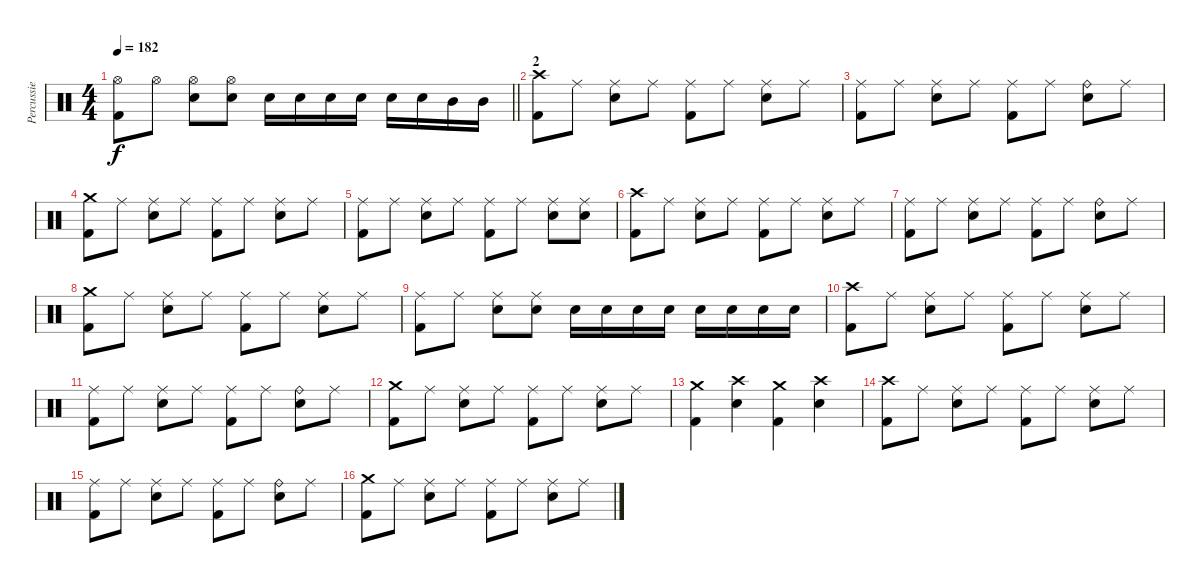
\track ("Percussie" "Percussie") {instrument percussion}
\staff {score}
\articulation defaults
\ts (4 4)
\tempo 182
\clef neutral
\barLineRight lightlight
\ks c
("Hi-Hat (open)" "Kick (hit) 2").8{dy f} "Hi-Hat (open)".8 ("Hi-Hat (open)" "Snare (hit) 2").8 ("Hi-Hat (open)" "Snare (hit) 2").8 "Snare (hit) 2".16 "Snare (hit) 2".16 "Snare (hit) 2".16 "Snare (hit) 2".16 "Snare (hit) 2".16 "Snare (hit) 2".16 "Mid Tom (hit)".16 "Mid Tom (hit)".16 |
\section ("" "2")
("Crash high (hit)" "Kick (hit) 2").8 "Ride (middle)".8 ("Ride (middle)" "Snare (hit) 2").8 "Ride (middle)".8 ("Ride (middle)" "Kick (hit) 2").8 "Ride (middle)".8 ("Ride (middle)" "Snare (hit) 2").8 "Ride (middle)".8 |
("Ride (middle)" "Kick (hit) 2").8 "Ride (middle)".8 ("Ride (middle)" "Snare (hit) 2").8 "Ride (middle)".8 ("Ride (middle)" "Kick (hit) 2").8 "Ride (middle)".8 ("Ride (bell)" "Snare (hit) 2").8 "Ride (middle)".8 |
("Crash medium (hit)" "Kick (hit) 2").8 "Ride (middle)".8 ("Ride (middle)" "Snare (hit) 2").8 "Ride (middle)".8 ("Ride (middle)" "Kick (hit) 2").8 "Ride (middle)".8 ("Ride (middle)" "Snare (hit) 2").8 "Ride (middle)".8 |
("Ride (middle)" "Kick (hit) 2").8 "Ride (middle)".8 ("Ride (middle)" "Snare (hit) 2").8 "Ride (middle)".8 ("Ride (middle)" "Kick (hit) 2").8 "Ride (middle)".8 ("Ride (middle)" "Snare (hit) 2").8 ("Ride (middle)" "Snare (hit) 2").8 |
("Crash high (hit)" "Kick (hit) 2").8 "Ride (middle)".8 ("Ride (middle)" "Snare (hit) 2").8 "Ride (middle)".8 ("Ride (middle)" "Kick (hit) 2").8 "Ride (middle)".8 ("Ride (middle)" "Snare (hit) 2").8 "Ride (middle)".8 |
("Ride (middle)" "Kick (hit) 2").8 "Ride (middle)".8 ("Ride (middle)" "Snare (hit) 2").8 "Ride (middle)".8 ("Ride (middle)" "Kick (hit) 2").8 "Ride (middle)".8 ("Ride (bell)" "Snare (hit) 2").8 "Ride (middle)".8 |
("Crash medium (hit)" "Kick (hit) 2").8 "Ride (middle)".8 ("Ride (middle)" "Snare (hit) 2").8 "Ride (middle)".8 ("Ride (middle)" "Kick (hit) 2").8 "Ride (middle)".8 ("Ride (middle)" "Snare (hit) 2").8 "Ride (middle)".8 |
("Ride (middle)" "Kick (hit) 2").8 "Ride (middle)".8 ("Ride (middle)" "Snare (hit) 2").8 ("Ride (middle)" "Snare (hit) 2").8 "Snare (hit) 2".16 "Snare (hit) 2".16 "Snare (hit) 2".16 "Snare (hit) 2".16 "Snare (hit) 2".16 "Snare (hit) 2".16 "Snare (hit) 2".16 "Snare (hit) 2".16 |
("Crash high (hit)" "Kick (hit) 2").8 "Ride (middle)".8 ("Ride (middle)" "Snare (hit) 2").8 "Ride (middle)".8 ("Ride (middle)" "Kick (hit) 2").8 "Ride (middle)".8 ("Ride (middle)" "Snare (hit) 2").8 "Ride (middle)".8 |
("Ride (middle)" "Kick (hit) 2").8 "Ride (middle)".8 ("Ride (middle)" "Snare (hit) 2").8 "Ride (middle)".8 ("Ride (middle)" "Kick (hit) 2").8 "Ride (middle)".8 ("Ride (bell)" "Snare (hit) 2").8 "Ride (middle)".8 |
("Crash medium (hit)" "Kick (hit) 2").8 "Ride (middle)".8 ("Ride (middle)" "Snare (hit) 2").8 "Ride (middle)".8 ("Ride (middle)" "Kick (hit) 2").8 "Ride (middle)".8 ("Ride (middle)" "Snare (hit) 2").8 "Ride (middle)".8 |
("Crash medium (hit)" "Kick (hit) 2").4 ("Crash high (hit)" "Snare (hit) 2").4 ("Crash medium (hit)" "Kick (hit) 2").4 ("Crash high (hit)" "Snare (hit) 2").4 |
("Crash high (hit)" "Kick (hit) 2").8 "Ride (middle)".8 ("Ride (middle)" "Snare (hit) 2").8 "Ride (middle)".8 ("Ride (middle)" "Kick (hit) 2").8 "Ride (middle)".8 ("Ride (middle)" "Snare (hit) 2").8 "Ride (middle)".8 |
("Ride (middle)" "Kick (hit) 2").8 "Ride (middle)".8 ("Ride (middle)" "Snare (hit) 2").8 "Ride (middle)".8 ("Ride (middle)" "Kick (hit) 2").8 "Ride (middle)".8 ("Ride (bell)" "Snare (hit) 2").8 "Ride (middle)".8 |
("Crash medium (hit)" "Kick (hit) 2").8 "Ride (middle)".8 ("Ride (middle)" "Snare (hit) 2").8 "Ride (middle)".8 ("Ride (middle)" "Kick (hit) 2").8 "Ride (middle)".8 ("Ride (middle)" "Snare (hit) 2").8 "Ride (middle)".8
